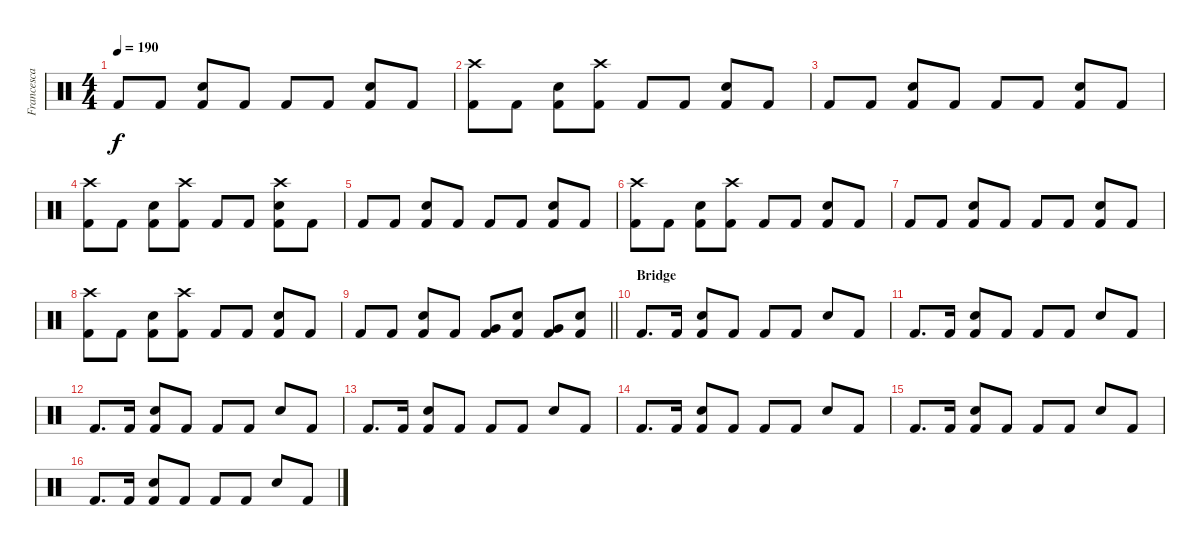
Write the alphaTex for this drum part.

\track ("Francesca Tresca" "Francesca ") {instrument percussion}
\staff {score}
\articulation defaults
\ts (4 4)
\tempo 190
\clef neutral
\ks c "Kick (hit) 2".8{dy f} "Kick (hit) 2".8
("Snare (hit) 2" "Kick (hit) 2").8 "Kick (hit) 2".8 "Kick (hit) 2".8 "Kick (hit) 2".8 ("Snare (hit) 2" "Kick (hit) 2").8 "Kick (hit) 2".8 |
("Crash high (hit)" "Kick (hit) 2").8 "Kick (hit) 2".8 ("Snare (hit) 2" "Kick (hit) 2").8 ("Crash high (hit)" "Kick (hit) 2").8 "Kick (hit) 2".8 "Kick (hit) 2".8 ("Snare (hit) 2" "Kick (hit) 2").8 "Kick (hit) 2".8 |
"Kick (hit) 2".8 "Kick (hit) 2".8 ("Snare (hit) 2" "Kick (hit) 2").8 "Kick (hit) 2".8 "Kick (hit) 2".8 "Kick (hit) 2".8 ("Snare (hit) 2" "Kick (hit) 2").8 "Kick (hit) 2".8 |
("Crash high (hit)" "Kick (hit) 2").8 "Kick (hit) 2".8 ("Snare (hit) 2" "Kick (hit) 2").8 ("Crash high (hit)" "Kick (hit) 2").8 "Kick (hit) 2".8 "Kick (hit) 2".8 ("Crash high (hit)" "Snare (hit) 2" "Kick (hit) 2").8 "Kick (hit) 2".8 |
"Kick (hit) 2".8 "Kick (hit) 2".8 ("Snare (hit) 2" "Kick (hit) 2").8 "Kick (hit) 2".8 "Kick (hit) 2".8 "Kick (hit) 2".8 ("Snare (hit) 2" "Kick (hit) 2").8 "Kick (hit) 2".8 |
("Crash high (hit)" "Kick (hit) 2").8 "Kick (hit) 2".8 ("Snare (hit) 2" "Kick (hit) 2").8 ("Crash high (hit)" "Kick (hit) 2").8 "Kick (hit) 2".8 "Kick (hit) 2".8 ("Snare (hit) 2" "Kick (hit) 2").8 "Kick (hit) 2".8 |
"Kick (hit) 2".8 "Kick (hit) 2".8 ("Snare (hit) 2" "Kick (hit) 2").8 "Kick (hit) 2".8 "Kick (hit) 2".8 "Kick (hit) 2".8 ("Snare (hit) 2" "Kick (hit) 2").8 "Kick (hit) 2".8 |
("Crash high (hit)" "Kick (hit) 2").8 "Kick (hit) 2".8 ("Snare (hit) 2" "Kick (hit) 2").8 ("Crash high (hit)" "Kick (hit) 2").8 "Kick (hit) 2".8 "Kick (hit) 2".8 ("Snare (hit) 2" "Kick (hit) 2").8 "Kick (hit) 2".8 |
\barLineRight lightlight "Kick (hit) 2".8 "Kick (hit) 2".8
("Snare (hit) 2" "Kick (hit) 2").8 "Kick (hit) 2".8 ("Very Low Tom (hit)" "Kick (hit) 2").8 ("Snare (hit) 2" "Kick (hit) 2").8 ("Very Low Tom (hit)" "Kick (hit) 2").8 ("Snare (hit) 2" "Kick (hit) 2").8 |
\section ("" "Bridge")
"Kick (hit) 2".8{d} "Kick (hit) 2".16 ("Snare (hit) 2" "Kick (hit) 2").8 "Kick (hit) 2".8 "Kick (hit) 2".8 "Kick (hit) 2".8 "Snare (hit) 2".8 "Kick (hit) 2".8 |
"Kick (hit) 2".8{d} "Kick (hit) 2".16 ("Snare (hit) 2" "Kick (hit) 2").8 "Kick (hit) 2".8 "Kick (hit) 2".8 "Kick (hit) 2".8 "Snare (hit) 2".8 "Kick (hit) 2".8 |
"Kick (hit) 2".8{d} "Kick (hit) 2".16 ("Snare (hit) 2" "Kick (hit) 2").8 "Kick (hit) 2".8 "Kick (hit) 2".8 "Kick (hit) 2".8 "Snare (hit) 2".8 "Kick (hit) 2".8 |
"Kick (hit) 2".8{d} "Kick (hit) 2".16 ("Snare (hit) 2" "Kick (hit) 2").8 "Kick (hit) 2".8 "Kick (hit) 2".8 "Kick (hit) 2".8 "Snare (hit) 2".8 "Kick (hit) 2".8 |
"Kick (hit) 2".8{d} "Kick (hit) 2".16 ("Snare (hit) 2" "Kick (hit) 2").8 "Kick (hit) 2".8 "Kick (hit) 2".8 "Kick (hit) 2".8 "Snare (hit) 2".8 "Kick (hit) 2".8 |
"Kick (hit) 2".8{d} "Kick (hit) 2".16 ("Snare (hit) 2" "Kick (hit) 2").8 "Kick (hit) 2".8 "Kick (hit) 2".8 "Kick (hit) 2".8 "Snare (hit) 2".8 "Kick (hit) 2".8 |
"Kick (hit) 2".8{d} "Kick (hit) 2".16 ("Snare (hit) 2" "Kick (hit) 2").8 "Kick (hit) 2".8 "Kick (hit) 2".8 "Kick (hit) 2".8 "Snare (hit) 2".8 "Kick (hit) 2".8
